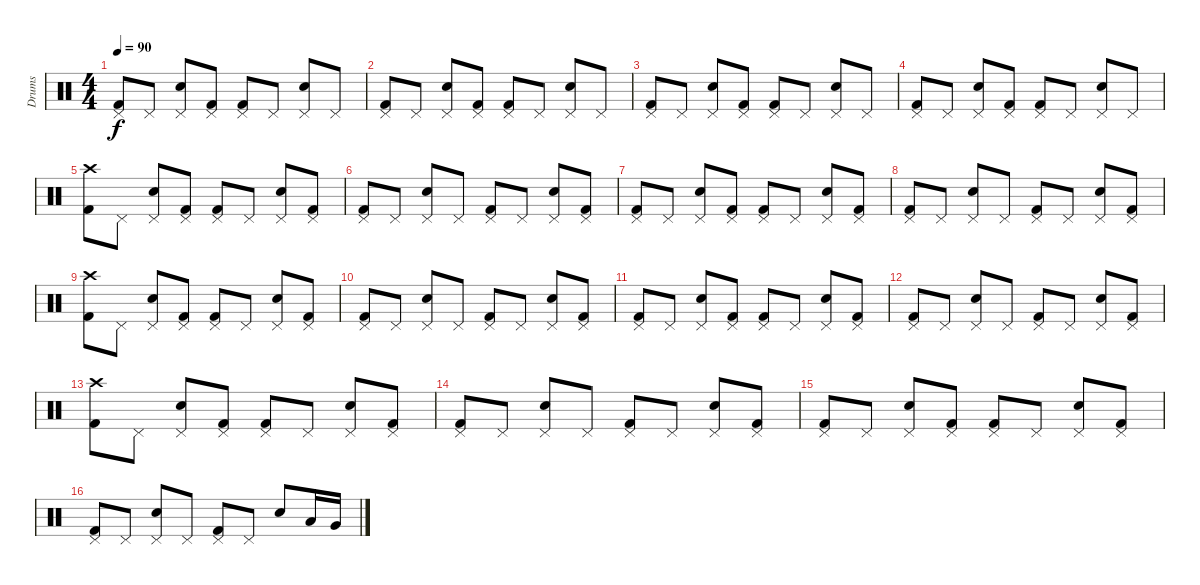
\track ("Drums" "Drums") {instrument percussion}
\staff {score}
\articulation defaults
\ts (4 4)
\tempo 90
\clef neutral
\ks c
("Pedal Hi-Hat (hit)" "Kick (hit) 2").8{dy f} "Pedal Hi-Hat (hit)".8 ("Pedal Hi-Hat (hit)" "Electric Snare (hit)").8 ("Pedal Hi-Hat (hit)" "Kick (hit) 2").8 ("Pedal Hi-Hat (hit)" "Kick (hit) 2").8 "Pedal Hi-Hat (hit)".8 ("Pedal Hi-Hat (hit)" "Electric Snare (hit)").8 "Pedal Hi-Hat (hit)".8 |
("Pedal Hi-Hat (hit)" "Kick (hit) 2").8 "Pedal Hi-Hat (hit)".8 ("Pedal Hi-Hat (hit)" "Electric Snare (hit)").8 ("Pedal Hi-Hat (hit)" "Kick (hit) 2").8 ("Pedal Hi-Hat (hit)" "Kick (hit) 2").8 "Pedal Hi-Hat (hit)".8 ("Pedal Hi-Hat (hit)" "Electric Snare (hit)").8 "Pedal Hi-Hat (hit)".8 |
("Pedal Hi-Hat (hit)" "Kick (hit) 2").8 "Pedal Hi-Hat (hit)".8 ("Pedal Hi-Hat (hit)" "Electric Snare (hit)").8 ("Pedal Hi-Hat (hit)" "Kick (hit) 2").8 ("Pedal Hi-Hat (hit)" "Kick (hit) 2").8 "Pedal Hi-Hat (hit)".8 ("Pedal Hi-Hat (hit)" "Electric Snare (hit)").8 "Pedal Hi-Hat (hit)".8 |
("Pedal Hi-Hat (hit)" "Kick (hit) 2").8 "Pedal Hi-Hat (hit)".8 ("Pedal Hi-Hat (hit)" "Electric Snare (hit)").8 ("Pedal Hi-Hat (hit)" "Kick (hit) 2").8 ("Pedal Hi-Hat (hit)" "Kick (hit) 2").8 "Pedal Hi-Hat (hit)".8 ("Pedal Hi-Hat (hit)" "Electric Snare (hit)").8 "Pedal Hi-Hat (hit)".8 |
("Crash high (hit)" "Kick (hit) 2").8 "Pedal Hi-Hat (hit)".8 ("Pedal Hi-Hat (hit)" "Electric Snare (hit)").8 ("Pedal Hi-Hat (hit)" "Kick (hit) 2").8 ("Pedal Hi-Hat (hit)" "Kick (hit) 2").8 "Pedal Hi-Hat (hit)".8 ("Pedal Hi-Hat (hit)" "Electric Snare (hit)").8 ("Pedal Hi-Hat (hit)" "Kick (hit) 2").8 |
("Pedal Hi-Hat (hit)" "Kick (hit) 2").8 "Pedal Hi-Hat (hit)".8 ("Pedal Hi-Hat (hit)" "Electric Snare (hit)").8 "Pedal Hi-Hat (hit)".8 ("Pedal Hi-Hat (hit)" "Kick (hit) 2").8 "Pedal Hi-Hat (hit)".8 ("Pedal Hi-Hat (hit)" "Electric Snare (hit)").8 ("Pedal Hi-Hat (hit)" "Kick (hit) 2").8 |
("Pedal Hi-Hat (hit)" "Kick (hit) 2").8 "Pedal Hi-Hat (hit)".8 ("Pedal Hi-Hat (hit)" "Electric Snare (hit)").8 ("Pedal Hi-Hat (hit)" "Kick (hit) 2").8 ("Pedal Hi-Hat (hit)" "Kick (hit) 2").8 "Pedal Hi-Hat (hit)".8 ("Pedal Hi-Hat (hit)" "Electric Snare (hit)").8 ("Pedal Hi-Hat (hit)" "Kick (hit) 2").8 |
("Pedal Hi-Hat (hit)" "Kick (hit) 2").8 "Pedal Hi-Hat (hit)".8 ("Pedal Hi-Hat (hit)" "Electric Snare (hit)").8 "Pedal Hi-Hat (hit)".8 ("Pedal Hi-Hat (hit)" "Kick (hit) 2").8 "Pedal Hi-Hat (hit)".8 ("Pedal Hi-Hat (hit)" "Electric Snare (hit)").8 ("Pedal Hi-Hat (hit)" "Kick (hit) 2").8 |
("Crash high (hit)" "Kick (hit) 2").8 "Pedal Hi-Hat (hit)".8 ("Pedal Hi-Hat (hit)" "Electric Snare (hit)").8 ("Pedal Hi-Hat (hit)" "Kick (hit) 2").8 ("Pedal Hi-Hat (hit)" "Kick (hit) 2").8 "Pedal Hi-Hat (hit)".8 ("Pedal Hi-Hat (hit)" "Electric Snare (hit)").8 ("Pedal Hi-Hat (hit)" "Kick (hit) 2").8 |
("Pedal Hi-Hat (hit)" "Kick (hit) 2").8 "Pedal Hi-Hat (hit)".8 ("Pedal Hi-Hat (hit)" "Electric Snare (hit)").8 "Pedal Hi-Hat (hit)".8 ("Pedal Hi-Hat (hit)" "Kick (hit) 2").8 "Pedal Hi-Hat (hit)".8 ("Pedal Hi-Hat (hit)" "Electric Snare (hit)").8 ("Pedal Hi-Hat (hit)" "Kick (hit) 2").8 |
("Pedal Hi-Hat (hit)" "Kick (hit) 2").8 "Pedal Hi-Hat (hit)".8 ("Pedal Hi-Hat (hit)" "Electric Snare (hit)").8 ("Pedal Hi-Hat (hit)" "Kick (hit) 2").8 ("Pedal Hi-Hat (hit)" "Kick (hit) 2").8 "Pedal Hi-Hat (hit)".8 ("Pedal Hi-Hat (hit)" "Electric Snare (hit)").8 ("Pedal Hi-Hat (hit)" "Kick (hit) 2").8 |
("Pedal Hi-Hat (hit)" "Kick (hit) 2").8 "Pedal Hi-Hat (hit)".8 ("Pedal Hi-Hat (hit)" "Electric Snare (hit)").8 "Pedal Hi-Hat (hit)".8 ("Pedal Hi-Hat (hit)" "Kick (hit) 2").8 "Pedal Hi-Hat (hit)".8 ("Pedal Hi-Hat (hit)" "Electric Snare (hit)").8 ("Pedal Hi-Hat (hit)" "Kick (hit) 2").8 |
("Crash high (hit)" "Kick (hit) 2").8 "Pedal Hi-Hat (hit)".8 ("Pedal Hi-Hat (hit)" "Electric Snare (hit)").8 ("Pedal Hi-Hat (hit)" "Kick (hit) 2").8 ("Pedal Hi-Hat (hit)" "Kick (hit) 2").8 "Pedal Hi-Hat (hit)".8 ("Pedal Hi-Hat (hit)" "Electric Snare (hit)").8 ("Pedal Hi-Hat (hit)" "Kick (hit) 2").8 |
("Pedal Hi-Hat (hit)" "Kick (hit) 2").8 "Pedal Hi-Hat (hit)".8 ("Pedal Hi-Hat (hit)" "Electric Snare (hit)").8 "Pedal Hi-Hat (hit)".8 ("Pedal Hi-Hat (hit)" "Kick (hit) 2").8 "Pedal Hi-Hat (hit)".8 ("Pedal Hi-Hat (hit)" "Electric Snare (hit)").8 ("Pedal Hi-Hat (hit)" "Kick (hit) 2").8 |
("Pedal Hi-Hat (hit)" "Kick (hit) 2").8 "Pedal Hi-Hat (hit)".8 ("Pedal Hi-Hat (hit)" "Electric Snare (hit)").8 ("Pedal Hi-Hat (hit)" "Kick (hit) 2").8 ("Pedal Hi-Hat (hit)" "Kick (hit) 2").8 "Pedal Hi-Hat (hit)".8 ("Pedal Hi-Hat (hit)" "Electric Snare (hit)").8 ("Pedal Hi-Hat (hit)" "Kick (hit) 2").8 |
("Pedal Hi-Hat (hit)" "Kick (hit) 2").8 "Pedal Hi-Hat (hit)".8 ("Pedal Hi-Hat (hit)" "Electric Snare (hit)").8 "Pedal Hi-Hat (hit)".8 ("Pedal Hi-Hat (hit)" "Kick (hit) 2").8 "Pedal Hi-Hat (hit)".8 "Electric Snare (hit)".8 "Low Tom (hit)".16 "Very Low Tom (hit)".16
